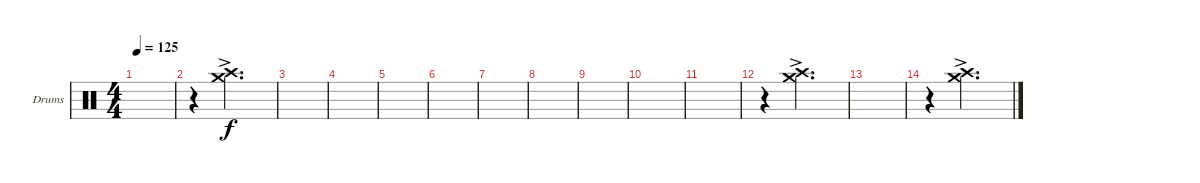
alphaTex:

\defaultSystemsLayout 4
\bracketExtendMode groupsimilarinstruments
\firstSystemTrackNameOrientation horizontal
\otherSystemsTrackNameOrientation horizontal
\track ("Drumkit" "Drums") {instrument percussion}
\staff {score}
\articulation defaults
\ts (4 4)
\tempo 125
\clef neutral
\scale
0.333333
\ks c
|
\scale
0.333333 r.4 ("Crash high (hit)"{ac} "Crash medium (hit)"{ac}).2{d} |
\scale
0.333333 |
\scale
0.333333 |
\scale
0.333333 |
\scale
0.333333 |
\scale
0.333333 |
\scale
0.333333 |
\scale
0.333333 |
\scale
0.333333 |
\scale
0.333333 |
\scale
0.333333 r.4 ("Crash high (hit)"{ac} "Crash medium (hit)"{ac}).2{d} |
\scale
0.333333 |
\scale
0.333333 r.4 ("Crash high (hit)"{ac} "Crash medium (hit)"{ac}).2{d} |
\scale
0.333333 |
\scale
0.333333
